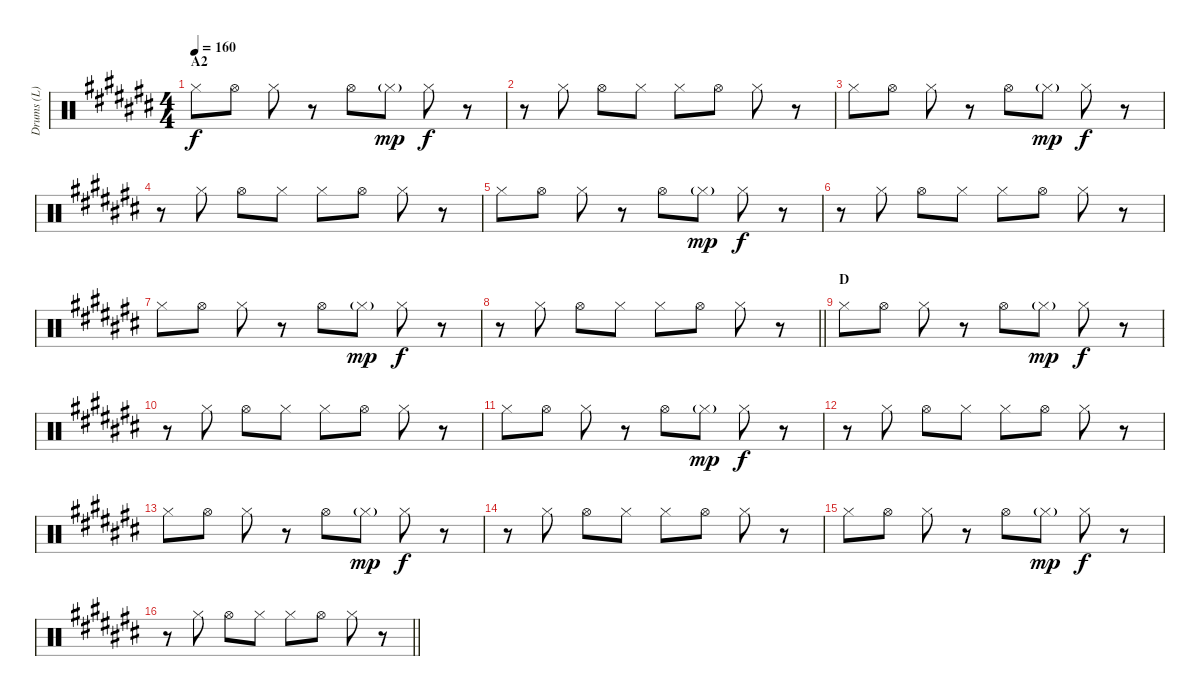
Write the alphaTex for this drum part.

\track ("Drums (L)" "Drums (L)") {instrument percussion}
\staff {score}
\articulation defaults
\ts (4 4)
\section ("" "A2")
\tempo 160
\clef neutral
\ks c# "Hi-Hat (closed)".8{dy f} "Hi-Hat (open)".8 "Hi-Hat (closed)".8
r.8 "Hi-Hat (open)".8 "Hi-Hat (closed)"{g}.8{dy mp} "Hi-Hat (closed)".8{dy f} r.8 |
r.8 "Hi-Hat (closed)".8 "Hi-Hat (open)".8 "Hi-Hat (closed)".8 "Hi-Hat (closed)".8 "Hi-Hat (open)".8 "Hi-Hat (closed)".8 r.8 |
"Hi-Hat (closed)".8 "Hi-Hat (open)".8 "Hi-Hat (closed)".8 r.8 "Hi-Hat (open)".8 "Hi-Hat (closed)"{g}.8{dy mp} "Hi-Hat (closed)".8{dy f} r.8 |
r.8 "Hi-Hat (closed)".8 "Hi-Hat (open)".8 "Hi-Hat (closed)".8 "Hi-Hat (closed)".8 "Hi-Hat (open)".8 "Hi-Hat (closed)".8 r.8 |
"Hi-Hat (closed)".8 "Hi-Hat (open)".8 "Hi-Hat (closed)".8 r.8 "Hi-Hat (open)".8 "Hi-Hat (closed)"{g}.8{dy mp} "Hi-Hat (closed)".8{dy f} r.8 |
r.8 "Hi-Hat (closed)".8 "Hi-Hat (open)".8 "Hi-Hat (closed)".8 "Hi-Hat (closed)".8 "Hi-Hat (open)".8 "Hi-Hat (closed)".8 r.8 |
"Hi-Hat (closed)".8 "Hi-Hat (open)".8 "Hi-Hat (closed)".8 r.8 "Hi-Hat (open)".8 "Hi-Hat (closed)"{g}.8{dy mp} "Hi-Hat (closed)".8{dy f} r.8 |
\barLineRight lightlight
r.8 "Hi-Hat (closed)".8 "Hi-Hat (open)".8 "Hi-Hat (closed)".8 "Hi-Hat (closed)".8 "Hi-Hat (open)".8 "Hi-Hat (closed)".8 r.8 |
\section ("" "D")
"Hi-Hat (closed)".8 "Hi-Hat (open)".8 "Hi-Hat (closed)".8 r.8 "Hi-Hat (open)".8 "Hi-Hat (closed)"{g}.8{dy mp} "Hi-Hat (closed)".8{dy f} r.8 |
r.8 "Hi-Hat (closed)".8 "Hi-Hat (open)".8 "Hi-Hat (closed)".8 "Hi-Hat (closed)".8 "Hi-Hat (open)".8 "Hi-Hat (closed)".8 r.8 |
"Hi-Hat (closed)".8 "Hi-Hat (open)".8 "Hi-Hat (closed)".8 r.8 "Hi-Hat (open)".8 "Hi-Hat (closed)"{g}.8{dy mp} "Hi-Hat (closed)".8{dy f} r.8 |
r.8 "Hi-Hat (closed)".8 "Hi-Hat (open)".8 "Hi-Hat (closed)".8 "Hi-Hat (closed)".8 "Hi-Hat (open)".8 "Hi-Hat (closed)".8 r.8 |
"Hi-Hat (closed)".8 "Hi-Hat (open)".8 "Hi-Hat (closed)".8 r.8 "Hi-Hat (open)".8 "Hi-Hat (closed)"{g}.8{dy mp} "Hi-Hat (closed)".8{dy f} r.8 |
r.8 "Hi-Hat (closed)".8 "Hi-Hat (open)".8 "Hi-Hat (closed)".8 "Hi-Hat (closed)".8 "Hi-Hat (open)".8 "Hi-Hat (closed)".8 r.8 |
"Hi-Hat (closed)".8 "Hi-Hat (open)".8 "Hi-Hat (closed)".8 r.8 "Hi-Hat (open)".8 "Hi-Hat (closed)"{g}.8{dy mp} "Hi-Hat (closed)".8{dy f} r.8 |
\barLineRight lightlight
r.8 "Hi-Hat (closed)".8 "Hi-Hat (open)".8 "Hi-Hat (closed)".8 "Hi-Hat (closed)".8 "Hi-Hat (open)".8 "Hi-Hat (closed)".8 r.8
